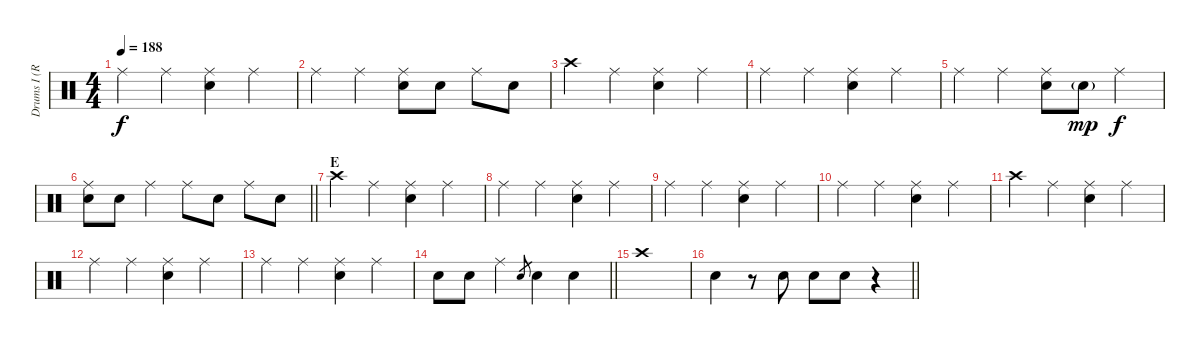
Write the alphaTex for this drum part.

\track ("Drums I (Ruka)" "Drums I (R") {instrument percussion}
\staff {score}
\articulation defaults
\ts (4 4)
\tempo 188
\clef neutral
\ks c "Ride (middle)".4{dy f} "Ride (middle)".4
("Ride (middle)" "Snare (hit) 2").4 "Ride (middle)".4 |
"Ride (middle)".4 "Ride (middle)".4 ("Ride (middle)" "Snare (hit) 2").8 "Snare (hit) 2".8 "Ride (middle)".8 "Snare (hit) 2".8 |
"Crash high (hit)".4 "Ride (middle)".4 ("Ride (middle)" "Snare (hit) 2").4 "Ride (middle)".4 |
"Ride (middle)".4 "Ride (middle)".4 ("Ride (middle)" "Snare (hit) 2").4 "Ride (middle)".4 |
"Ride (middle)".4 "Ride (middle)".4 ("Ride (middle)" "Snare (hit) 2").8 "Snare (hit) 2"{g}.8{dy mp} "Ride (middle)".4{dy f} |
\barLineRight lightlight
("Ride (middle)" "Snare (hit) 2").8 "Snare (hit) 2".8 "Ride (middle)".4 "Ride (middle)".8 "Snare (hit) 2".8 "Ride (middle)".8 "Snare (hit) 2".8 |
\section ("" "E")
"Crash high (hit)".4 "Ride (middle)".4 ("Ride (middle)" "Snare (hit) 2").4 "Ride (middle)".4 |
"Ride (middle)".4 "Ride (middle)".4 ("Ride (middle)" "Snare (hit) 2").4 "Ride (middle)".4 |
"Ride (middle)".4 "Ride (middle)".4 ("Ride (middle)" "Snare (hit) 2").4 "Ride (middle)".4 |
"Ride (middle)".4 "Ride (middle)".4 ("Ride (middle)" "Snare (hit) 2").4 "Ride (middle)".4 |
"Crash high (hit)".4 "Ride (middle)".4 ("Ride (middle)" "Snare (hit) 2").4 "Ride (middle)".4 |
"Ride (middle)".4 "Ride (middle)".4 ("Ride (middle)" "Snare (hit) 2").4 "Ride (middle)".4 |
"Ride (middle)".4 "Ride (middle)".4 ("Ride (middle)" "Snare (hit) 2").4 "Ride (middle)".4 |
\barLineRight lightlight "Snare (hit) 2".8 "Snare (hit) 2".8 "Ride (middle)".4 "Snare (hit) 2".8{gr} "Snare (hit) 2".4 "Snare (hit) 2".4
|
"Crash high (hit)".1 |
\barLineRight lightlight "Snare (hit) 2".4
r.8 "Snare (hit) 2".8 "Snare (hit) 2".8 "Snare (hit) 2".8 r.4
